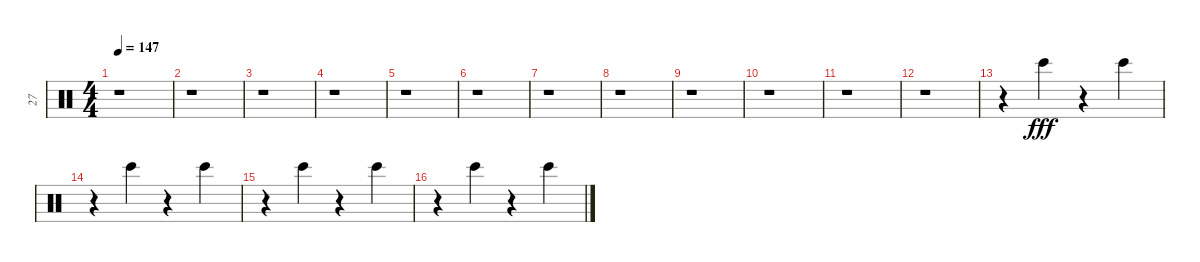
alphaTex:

\track ("27" "27") {instrument percussion}
\staff {score}
\articulation defaults
\ts (4 4)
\tempo 147
\clef neutral
\ks c
r.1{dy fff} |
r.1 |
r.1 |
r.1 |
r.1 |
r.1 |
r.1 |
r.1 |
r.1 |
r.1 |
r.1 |
r.1 |
r.4 "Bongo High (hit)".4 r.4 "Bongo High (hit)".4 |
r.4 "Bongo High (hit)".4 r.4 "Bongo High (hit)".4 |
r.4 "Bongo High (hit)".4 r.4 "Bongo High (hit)".4 |
r.4 "Bongo High (hit)".4 r.4 "Bongo High (hit)".4
